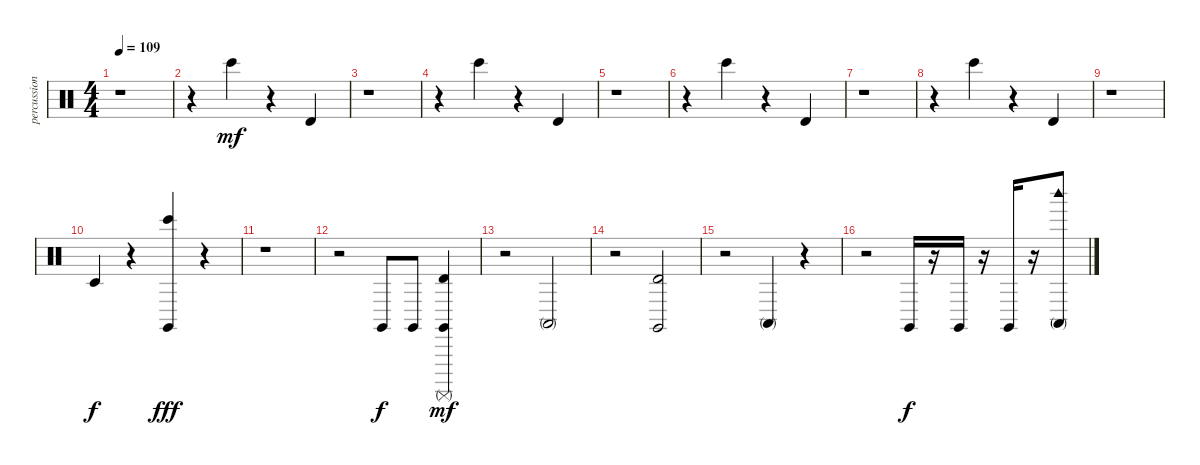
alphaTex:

\track ("percussion" "percussion") {instrument percussion}
\staff {score}
\articulation defaults
\ts (4 4)
\tempo 109
\clef neutral
\ks c
r.1{dy mf} |
r.4 "Bongo High (hit)".4 r.4 "Timbale high (hit)".4 |
r.1 |
r.4 "Bongo High (hit)".4 r.4 "Timbale high (hit)".4 |
r.1 |
r.4 "Bongo High (hit)".4 r.4 "Timbale high (hit)".4 |
r.1 |
r.4 "Bongo High (hit)".4 r.4 "Timbale high (hit)".4 |
r.1 |
"Timbale low (hit)".4{dy f} r.4 ("Bongo High (hit)" "Claves (hit)").4{dy fff} r.4 |
r.1 |
r.2 "Claves (hit)".8{dy f} "Claves (hit)".8 ("Timbale high (hit)" "Surdo (mute)" "Claves (hit)").4{dy mf} |
r.2 "Conga high (mute)".2 |
r.2 ("Claves (hit)" "Timbale high (hit)").2 |
r.2 "Conga high (mute)".4 r.4 |
r.2 "Claves (hit)".16{dy f} r.16 "Claves (hit)".16 r.16 "Claves (hit)".16 r.16 ("Woodblock high (hit)" "Conga high (mute)").8
